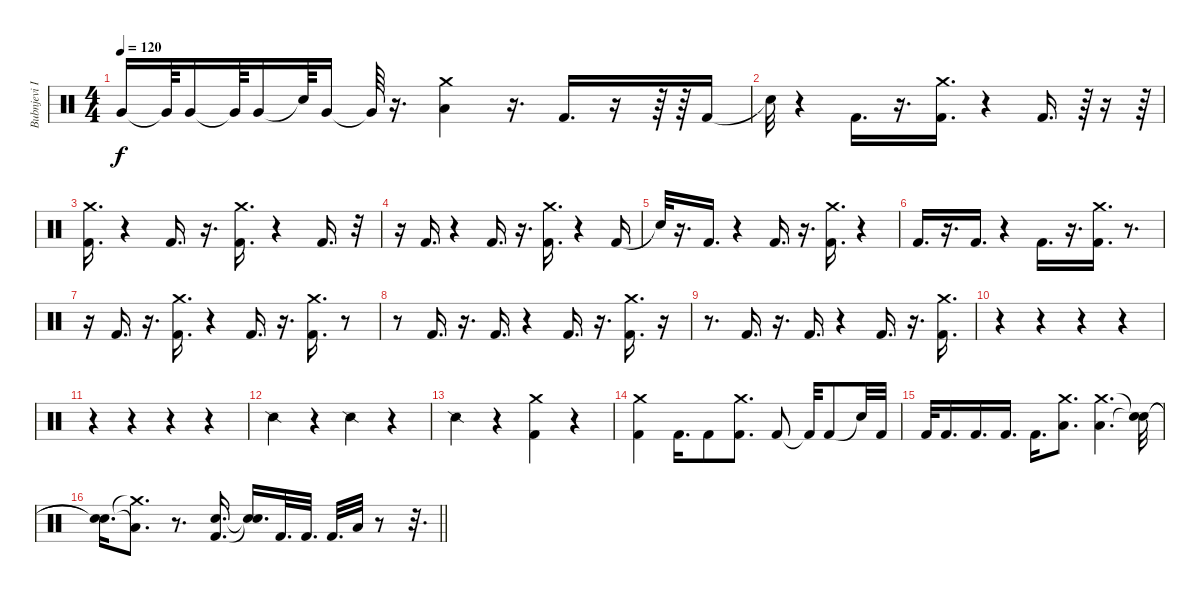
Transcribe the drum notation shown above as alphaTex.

\track ("Bubnjevi Ipe Ivandic" "Bubnjevi I") {instrument percussion}
\staff {score}
\articulation defaults
\ts (4 4)
\tempo 120
\clef neutral
\ks c "Very Low Tom (hit)".16{dy f} "Very Low Tom (hit)"{t}.64 "Very Low Tom (hit)".16 "Very Low Tom (hit)"{t}.64 "Very Low Tom (hit)".16 "Snare (hit)"{t}.64 "Very Low Tom (hit)".16 "Very Low Tom (hit)"{t}.64
r.16{d} ("Low Tom (hit)" "Crash medium (hit)").4 r.16{d} "Kick (hit) 2".16{d} r.16 r.64 r.64 "Kick (hit) 2".16 |
"Snare (hit)"{t}.32 r.4 "Kick (hit) 2".16{d} r.16{d} ("Kick (hit) 2" "Crash medium (hit)").16{d} r.4 "Kick (hit) 2".16{d} r.64 r.16 r.64 |
("Kick (hit) 2" "Crash medium (hit)").16{d} r.4 "Kick (hit) 2".16{d} r.16{d} ("Kick (hit) 2" "Crash medium (hit)").16{d} r.4 "Kick (hit) 2".16{d} r.32 |
r.16 "Kick (hit) 2".16{d} r.4 "Kick (hit) 2".16{d} r.16{d} ("Kick (hit) 2" "Crash medium (hit)").16{d} r.4 "Kick (hit) 2".16 |
"Snare (hit)"{t}.32 r.16{d} "Kick (hit) 2".16{d} r.4 "Kick (hit) 2".16{d} r.16{d} ("Kick (hit) 2" "Crash medium (hit)").16{d} r.4 |
"Kick (hit) 2".16{d} r.16{d} "Kick (hit) 2".16{d} r.4 "Kick (hit) 2".16{d} r.16{d} ("Kick (hit) 2" "Crash medium (hit)").16{d} r.8{d} |
r.16 "Kick (hit) 2".16{d} r.16{d} ("Kick (hit) 2" "Crash medium (hit)").16{d} r.4 "Kick (hit) 2".16{d} r.16{d} ("Kick (hit) 2" "Crash medium (hit)").16{d} r.8 |
r.8 "Kick (hit) 2".16{d} r.16{d} "Kick (hit) 2".16{d} r.4 "Kick (hit) 2".16{d} r.16{d} ("Kick (hit) 2" "Crash medium (hit)").16{d} r.16 |
r.8{d} "Kick (hit) 2".16{d} r.16{d} "Kick (hit) 2".16{d} r.4 "Kick (hit) 2".16{d} r.16{d} ("Kick (hit) 2" "Crash medium (hit)").16{d} |
r.4 r.4 r.4 r.4 |
r.4 r.4 r.4 r.4 |
"Snare (side stick) 2".4 r.4 "Snare (side stick) 2".4 r.4 |
"Snare (side stick) 2".4 r.4 ("Kick (hit) 2" "Crash medium (hit)").4 r.4 |
("Kick (hit) 2" "Crash medium (hit)").4 "Kick (hit) 2".16{d} "Kick (hit) 2".8 ("Kick (hit) 2" "Crash medium (hit)").8{d} "Kick (hit) 2".8 "Kick (hit) 2"{t}.32 "Kick (hit) 2".8 "Snare (hit)"{t}.32 "Kick (hit) 2".32 |
"Kick (hit) 2".32 "Kick (hit) 2".16{d} "Kick (hit) 2".16{d} "Kick (hit) 2".16{d} "Kick (hit) 2".16{d} ("Low Tom (hit)" "Crash medium (hit)").8{d} ("Low Tom (hit)" "Crash medium (hit)").4{d} ("Snare (hit)"{t} "Snare (hit)"{t}).32 |
\barLineRight lightlight
("Snare (hit)"{t} "Snare (hit)"{t}).16{d} ("Low Tom (hit)"{t} "Crash medium (hit)"{t}).8{d} r.8{d} ("Kick (hit) 2" "Snare (hit) 2").16{d} ("Snare (hit)"{t} "Snare (hit)"{t}).16{d} "Kick (hit) 2".32{d} "Kick (hit) 2".32{d} "Kick (hit) 2".32{d} "Low Tom (hit)".32 r.8 r.32{d}
